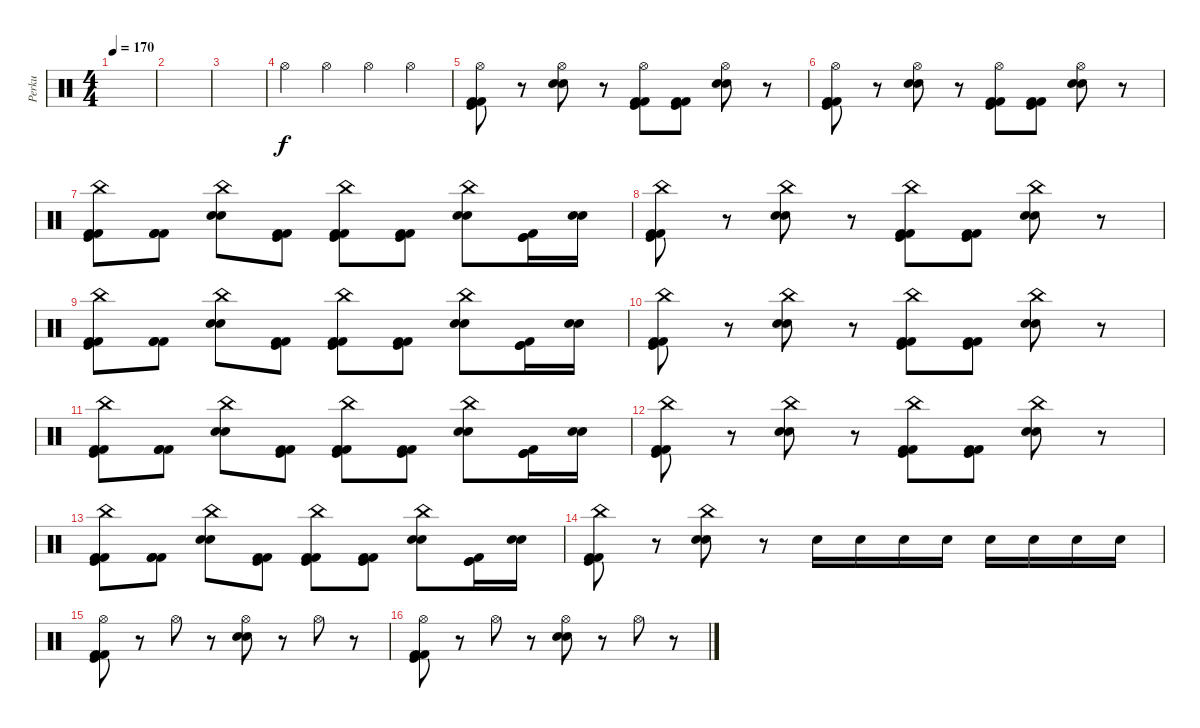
\track ("Perku" "Perku") {instrument percussion}
\staff {score}
\articulation defaults
\ts (4 4)
\tempo 170
\clef neutral
\ks c
|
|
|
"Hi-Hat (open)".4 "Hi-Hat (open)".4 "Hi-Hat (open)".4 "Hi-Hat (open)".4 |
("Hi-Hat (open)" "Kick (hit) 2" "Kick (hit) 2" "Kick (hit)").8 r.8 ("Hi-Hat (open)" "Electric Snare (hit)" "Electric Snare (hit)").8 r.8 ("Hi-Hat (open)" "Kick (hit) 2" "Kick (hit) 2" "Kick (hit)").8 ("Kick (hit)" "Kick (hit) 2" "Kick (hit) 2").8 ("Hi-Hat (open)" "Electric Snare (hit)" "Electric Snare (hit)").8 r.8 |
("Hi-Hat (open)" "Kick (hit) 2" "Kick (hit) 2" "Kick (hit)").8 r.8 ("Hi-Hat (open)" "Electric Snare (hit)" "Electric Snare (hit)").8 r.8 ("Hi-Hat (open)" "Kick (hit) 2" "Kick (hit) 2" "Kick (hit)").8 ("Kick (hit)" "Kick (hit) 2" "Kick (hit) 2").8 ("Hi-Hat (open)" "Electric Snare (hit)" "Electric Snare (hit)").8 r.8 |
("China (hit)" "Kick (hit) 2" "Kick (hit) 2" "Kick (hit)").8 ("Kick (hit) 2" "Kick (hit) 2" "Kick (hit) 2").8 ("China (hit)" "Electric Snare (hit)" "Electric Snare (hit)").8 ("Kick (hit) 2" "Kick (hit) 2" "Kick (hit)").8 ("China (hit)" "Kick (hit) 2" "Kick (hit) 2" "Kick (hit)").8 ("Kick (hit)" "Kick (hit) 2" "Kick (hit) 2").8 ("China (hit)" "Electric Snare (hit)" "Electric Snare (hit)").8 ("Kick (hit)" "Kick (hit) 2" "Kick (hit)").16 ("Electric Snare (hit)" "Electric Snare (hit)").16 |
("China (hit)" "Kick (hit) 2" "Kick (hit) 2" "Kick (hit)").8 r.8 ("China (hit)" "Electric Snare (hit)" "Electric Snare (hit)").8 r.8 ("China (hit)" "Kick (hit) 2" "Kick (hit) 2" "Kick (hit)").8 ("Kick (hit)" "Kick (hit) 2" "Kick (hit) 2").8 ("China (hit)" "Electric Snare (hit)" "Electric Snare (hit)").8 r.8 |
("China (hit)" "Kick (hit) 2" "Kick (hit) 2" "Kick (hit)").8 ("Kick (hit) 2" "Kick (hit) 2" "Kick (hit) 2").8 ("China (hit)" "Electric Snare (hit)" "Electric Snare (hit)").8 ("Kick (hit) 2" "Kick (hit) 2" "Kick (hit)").8 ("China (hit)" "Kick (hit) 2" "Kick (hit) 2" "Kick (hit)").8 ("Kick (hit)" "Kick (hit) 2" "Kick (hit) 2").8 ("China (hit)" "Electric Snare (hit)" "Electric Snare (hit)").8 ("Kick (hit)" "Kick (hit) 2" "Kick (hit)").16 ("Electric Snare (hit)" "Electric Snare (hit)").16 |
("China (hit)" "Kick (hit) 2" "Kick (hit) 2" "Kick (hit)").8 r.8 ("China (hit)" "Electric Snare (hit)" "Electric Snare (hit)").8 r.8 ("China (hit)" "Kick (hit) 2" "Kick (hit) 2" "Kick (hit)").8 ("Kick (hit)" "Kick (hit) 2" "Kick (hit) 2").8 ("China (hit)" "Electric Snare (hit)" "Electric Snare (hit)").8 r.8 |
("China (hit)" "Kick (hit) 2" "Kick (hit) 2" "Kick (hit)").8 ("Kick (hit) 2" "Kick (hit) 2" "Kick (hit) 2").8 ("China (hit)" "Electric Snare (hit)" "Electric Snare (hit)").8 ("Kick (hit) 2" "Kick (hit) 2" "Kick (hit)").8 ("China (hit)" "Kick (hit) 2" "Kick (hit) 2" "Kick (hit)").8 ("Kick (hit)" "Kick (hit) 2" "Kick (hit) 2").8 ("China (hit)" "Electric Snare (hit)" "Electric Snare (hit)").8 ("Kick (hit)" "Kick (hit) 2" "Kick (hit)").16 ("Electric Snare (hit)" "Electric Snare (hit)").16 |
("China (hit)" "Kick (hit) 2" "Kick (hit) 2" "Kick (hit)").8 r.8 ("China (hit)" "Electric Snare (hit)" "Electric Snare (hit)").8 r.8 ("China (hit)" "Kick (hit) 2" "Kick (hit) 2" "Kick (hit)").8 ("Kick (hit)" "Kick (hit) 2" "Kick (hit) 2").8 ("China (hit)" "Electric Snare (hit)" "Electric Snare (hit)").8 r.8 |
("China (hit)" "Kick (hit) 2" "Kick (hit) 2" "Kick (hit)").8 ("Kick (hit) 2" "Kick (hit) 2" "Kick (hit) 2").8 ("China (hit)" "Electric Snare (hit)" "Electric Snare (hit)").8 ("Kick (hit) 2" "Kick (hit) 2" "Kick (hit)").8 ("China (hit)" "Kick (hit) 2" "Kick (hit) 2" "Kick (hit)").8 ("Kick (hit)" "Kick (hit) 2" "Kick (hit) 2").8 ("China (hit)" "Electric Snare (hit)" "Electric Snare (hit)").8 ("Kick (hit)" "Kick (hit) 2" "Kick (hit)").16 ("Electric Snare (hit)" "Electric Snare (hit)").16 |
("China (hit)" "Kick (hit) 2" "Kick (hit) 2" "Kick (hit)").8 r.8 ("China (hit)" "Electric Snare (hit)" "Electric Snare (hit)").8 r.8 "Electric Snare (hit)".16 "Electric Snare (hit)".16 "Electric Snare (hit)".16 "Electric Snare (hit)".16 "Electric Snare (hit)".16 "Electric Snare (hit)".16 "Electric Snare (hit)".16 "Electric Snare (hit)".16 |
("Hi-Hat (open)" "Kick (hit) 2" "Kick (hit) 2" "Kick (hit)").8 r.8 "Hi-Hat (open)".8 r.8 ("Hi-Hat (open)" "Electric Snare (hit)" "Electric Snare (hit)").8 r.8 "Hi-Hat (open)".8 r.8 |
("Hi-Hat (open)" "Kick (hit) 2" "Kick (hit) 2" "Kick (hit)").8 r.8 "Hi-Hat (open)".8 r.8 ("Hi-Hat (open)" "Electric Snare (hit)" "Electric Snare (hit)").8 r.8 "Hi-Hat (open)".8 r.8
